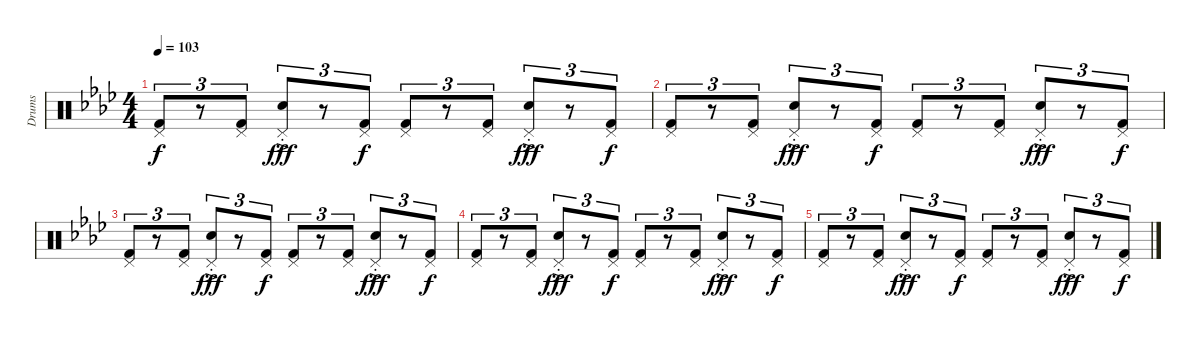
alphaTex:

\track ("Drums" "Drums") {instrument percussion}
\staff {score}
\articulation defaults
\ts (4 4)
\tempo 103
\clef neutral
\ks ab
("Pedal Hi-Hat (hit)" "Kick (hit) 2").8{tu (3 2) dy f} r.8{tu (3 2)} ("Pedal Hi-Hat (hit)" "Kick (hit) 2").8{tu (3 2)} ("Pedal Hi-Hat (hit)"{ac st} "Snare (hit) 2"{ac st}).8{tu (3 2) dy fff} r.8{tu (3 2)} ("Pedal Hi-Hat (hit)" "Kick (hit) 2").8{tu (3 2) dy f} ("Pedal Hi-Hat (hit)" "Kick (hit) 2").8{tu (3 2)} r.8{tu (3 2)} ("Pedal Hi-Hat (hit)" "Kick (hit) 2").8{tu (3 2)} ("Pedal Hi-Hat (hit)"{ac st} "Snare (hit) 2"{ac st}).8{tu (3 2) dy fff} r.8{tu (3 2)} ("Pedal Hi-Hat (hit)" "Kick (hit) 2").8{tu (3 2) dy f} |
("Pedal Hi-Hat (hit)" "Kick (hit) 2").8{tu (3 2)} r.8{tu (3 2)} ("Pedal Hi-Hat (hit)" "Kick (hit) 2").8{tu (3 2)} ("Pedal Hi-Hat (hit)"{ac st} "Snare (hit) 2"{ac st}).8{tu (3 2) dy fff} r.8{tu (3 2)} ("Pedal Hi-Hat (hit)" "Kick (hit) 2").8{tu (3 2) dy f} ("Pedal Hi-Hat (hit)" "Kick (hit) 2").8{tu (3 2)} r.8{tu (3 2)} ("Pedal Hi-Hat (hit)" "Kick (hit) 2").8{tu (3 2)} ("Pedal Hi-Hat (hit)"{ac st} "Snare (hit) 2"{ac st}).8{tu (3 2) dy fff} r.8{tu (3 2)} ("Pedal Hi-Hat (hit)" "Kick (hit) 2").8{tu (3 2) dy f} |
("Pedal Hi-Hat (hit)" "Kick (hit) 2").8{tu (3 2)} r.8{tu (3 2)} ("Pedal Hi-Hat (hit)" "Kick (hit) 2").8{tu (3 2)} ("Pedal Hi-Hat (hit)"{ac st} "Snare (hit) 2"{ac st}).8{tu (3 2) dy fff} r.8{tu (3 2)} ("Pedal Hi-Hat (hit)" "Kick (hit) 2").8{tu (3 2) dy f} ("Pedal Hi-Hat (hit)" "Kick (hit) 2").8{tu (3 2)} r.8{tu (3 2)} ("Pedal Hi-Hat (hit)" "Kick (hit) 2").8{tu (3 2)} ("Pedal Hi-Hat (hit)"{ac st} "Snare (hit) 2"{ac st}).8{tu (3 2) dy fff} r.8{tu (3 2)} ("Pedal Hi-Hat (hit)" "Kick (hit) 2").8{tu (3 2) dy f} |
("Pedal Hi-Hat (hit)" "Kick (hit) 2").8{tu (3 2)} r.8{tu (3 2)} ("Pedal Hi-Hat (hit)" "Kick (hit) 2").8{tu (3 2)} ("Pedal Hi-Hat (hit)"{ac st} "Snare (hit) 2"{ac st}).8{tu (3 2) dy fff} r.8{tu (3 2)} ("Pedal Hi-Hat (hit)" "Kick (hit) 2").8{tu (3 2) dy f} ("Pedal Hi-Hat (hit)" "Kick (hit) 2").8{tu (3 2)} r.8{tu (3 2)} ("Pedal Hi-Hat (hit)" "Kick (hit) 2").8{tu (3 2)} ("Pedal Hi-Hat (hit)"{ac st} "Snare (hit) 2"{ac st}).8{tu (3 2) dy fff} r.8{tu (3 2)} ("Pedal Hi-Hat (hit)" "Kick (hit) 2").8{tu (3 2) dy f} |
("Pedal Hi-Hat (hit)" "Kick (hit) 2").8{tu (3 2)} r.8{tu (3 2)} ("Pedal Hi-Hat (hit)" "Kick (hit) 2").8{tu (3 2)} ("Pedal Hi-Hat (hit)"{ac st} "Snare (hit) 2"{ac st}).8{tu (3 2) dy fff} r.8{tu (3 2)} ("Pedal Hi-Hat (hit)" "Kick (hit) 2").8{tu (3 2) dy f} ("Pedal Hi-Hat (hit)" "Kick (hit) 2").8{tu (3 2)} r.8{tu (3 2)} ("Pedal Hi-Hat (hit)" "Kick (hit) 2").8{tu (3 2)} ("Pedal Hi-Hat (hit)"{ac st} "Snare (hit) 2"{ac st}).8{tu (3 2) dy fff} r.8{tu (3 2)} ("Pedal Hi-Hat (hit)" "Kick (hit) 2").8{tu (3 2) dy f}
